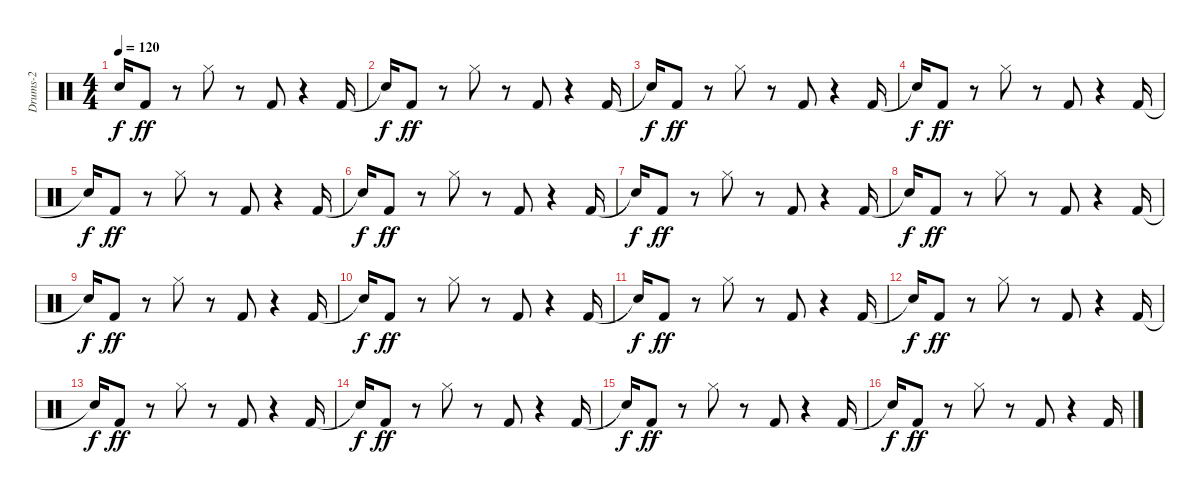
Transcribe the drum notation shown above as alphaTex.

\track ("Drums-2" "Drums-2") {instrument percussion}
\staff {score}
\articulation defaults
\ts (4 4)
\tempo 120
\clef neutral
\ks c "Snare (hit)"{t}.16{dy f} "Kick (hit) 2".8{dy ff}
r.8 "Hi-Hat (closed)".8 r.8 "Kick (hit) 2".8 r.4 "Kick (hit) 2".16 |
"Snare (hit)"{t}.16{dy f} "Kick (hit) 2".8{dy ff} r.8 "Hi-Hat (closed)".8 r.8 "Kick (hit) 2".8 r.4 "Kick (hit) 2".16 |
"Snare (hit)"{t}.16{dy f} "Kick (hit) 2".8{dy ff} r.8 "Hi-Hat (closed)".8 r.8 "Kick (hit) 2".8 r.4 "Kick (hit) 2".16 |
"Snare (hit)"{t}.16{dy f} "Kick (hit) 2".8{dy ff} r.8 "Hi-Hat (closed)".8 r.8 "Kick (hit) 2".8 r.4 "Kick (hit) 2".16 |
"Snare (hit)"{t}.16{dy f} "Kick (hit) 2".8{dy ff} r.8 "Hi-Hat (closed)".8 r.8 "Kick (hit) 2".8 r.4 "Kick (hit) 2".16 |
"Snare (hit)"{t}.16{dy f} "Kick (hit) 2".8{dy ff} r.8 "Hi-Hat (closed)".8 r.8 "Kick (hit) 2".8 r.4 "Kick (hit) 2".16 |
"Snare (hit)"{t}.16{dy f} "Kick (hit) 2".8{dy ff} r.8 "Hi-Hat (closed)".8 r.8 "Kick (hit) 2".8 r.4 "Kick (hit) 2".16 |
"Snare (hit)"{t}.16{dy f} "Kick (hit) 2".8{dy ff} r.8 "Hi-Hat (closed)".8 r.8 "Kick (hit) 2".8 r.4 "Kick (hit) 2".16 |
"Snare (hit)"{t}.16{dy f} "Kick (hit) 2".8{dy ff} r.8 "Hi-Hat (closed)".8 r.8 "Kick (hit) 2".8 r.4 "Kick (hit) 2".16 |
"Snare (hit)"{t}.16{dy f} "Kick (hit) 2".8{dy ff} r.8 "Hi-Hat (closed)".8 r.8 "Kick (hit) 2".8 r.4 "Kick (hit) 2".16 |
"Snare (hit)"{t}.16{dy f} "Kick (hit) 2".8{dy ff} r.8 "Hi-Hat (closed)".8 r.8 "Kick (hit) 2".8 r.4 "Kick (hit) 2".16 |
"Snare (hit)"{t}.16{dy f} "Kick (hit) 2".8{dy ff} r.8 "Hi-Hat (closed)".8 r.8 "Kick (hit) 2".8 r.4 "Kick (hit) 2".16 |
"Snare (hit)"{t}.16{dy f} "Kick (hit) 2".8{dy ff} r.8 "Hi-Hat (closed)".8 r.8 "Kick (hit) 2".8 r.4 "Kick (hit) 2".16 |
"Snare (hit)"{t}.16{dy f} "Kick (hit) 2".8{dy ff} r.8 "Hi-Hat (closed)".8 r.8 "Kick (hit) 2".8 r.4 "Kick (hit) 2".16 |
"Snare (hit)"{t}.16{dy f} "Kick (hit) 2".8{dy ff} r.8 "Hi-Hat (closed)".8 r.8 "Kick (hit) 2".8 r.4 "Kick (hit) 2".16 |
"Snare (hit)"{t}.16{dy f} "Kick (hit) 2".8{dy ff} r.8 "Hi-Hat (closed)".8 r.8 "Kick (hit) 2".8 r.4 "Kick (hit) 2".16
